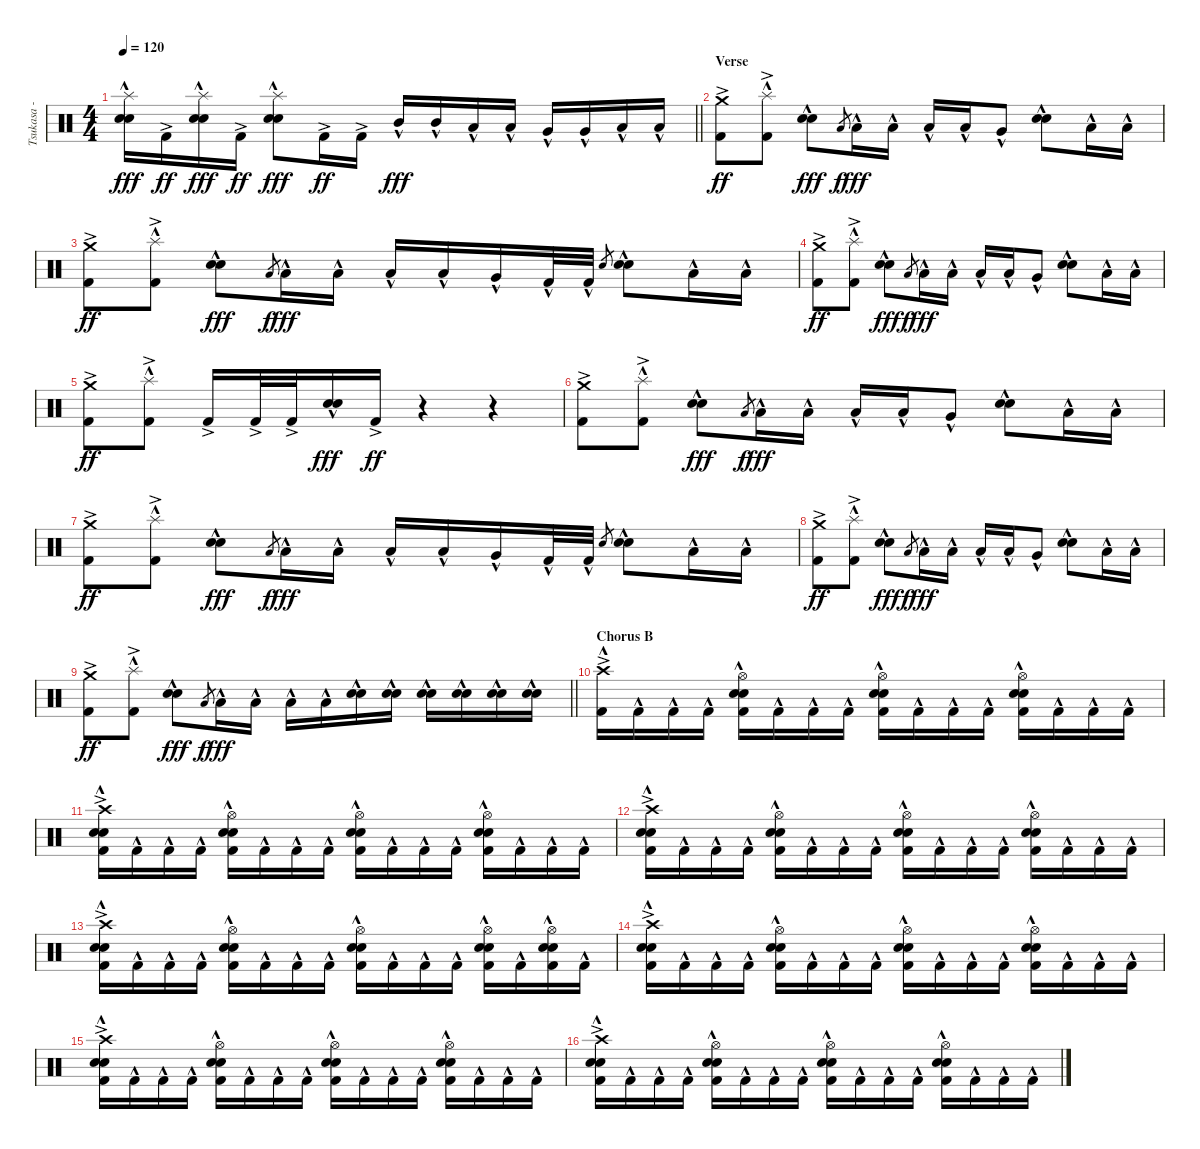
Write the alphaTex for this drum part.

\track ("Tsukasa - Drums" "Tsukasa - ") {instrument percussion}
\staff {score}
\articulation defaults
\ts (4 4)
\tempo 120
\clef neutral
\barLineRight lightlight
\ks c
("Splash (hit)"{hac} "Electric Snare (hit)"{hac} "Snare (hit) 2"{hac}).16{dy fff} "Kick (hit) 2"{ac}.16{dy ff} ("Splash (hit)"{hac} "Electric Snare (hit)"{hac} "Snare (hit) 2"{hac}).16{dy fff} "Kick (hit) 2"{ac}.16{dy ff} ("Splash (hit)"{hac} "Electric Snare (hit)"{hac} "Snare (hit) 2"{hac}).8{dy fff} "Kick (hit) 2"{ac}.16{dy ff} "Kick (hit) 2"{ac}.16 "Mid Tom (hit)"{hac}.16{dy fff} "Mid Tom (hit)"{hac}.16 "Low Tom (hit)"{hac}.16 "Low Tom (hit)"{hac}.16 "Very Low Tom (hit)"{hac}.16 "Very Low Tom (hit)"{hac}.16 "Low Floor Tom (hit)"{hac}.16 "Low Floor Tom (hit)"{hac}.16 |
\section ("" "Verse")
("Crash medium (hit)"{ac} "Kick (hit) 2"{ac}).8{dy ff} ("Splash (hit)"{hac} "Kick (hit) 2"{ac}).8 ("Electric Snare (hit)"{hac} "Snare (hit) 2"{hac}).8{dy fff} "Low Tom (hit)".8{gr dy f} "Low Tom (hit)"{hac}.16{dy fff} "Low Tom (hit)"{hac}.16 "Low Tom (hit)"{hac}.16 "Low Tom (hit)"{hac}.16 "Very Low Tom (hit)"{hac}.8 ("Electric Snare (hit)"{hac} "Snare (hit) 2"{hac}).8 "Low Floor Tom (hit)"{hac}.16 "Low Floor Tom (hit)"{hac}.16 |
("Crash medium (hit)"{ac} "Kick (hit) 2"{ac}).8{dy ff} ("Splash (hit)"{hac} "Kick (hit) 2"{ac}).8 ("Electric Snare (hit)"{hac} "Snare (hit) 2"{hac}).8{dy fff} "Low Tom (hit)".8{gr dy f} "Low Tom (hit)"{hac}.16{dy fff} "Low Tom (hit)"{hac}.16 "Low Tom (hit)"{hac}.16 "Low Tom (hit)"{hac}.16 "Very Low Tom (hit)"{hac}.16 "Kick (hit) 2"{hac}.32 "Kick (hit) 2"{hac}.32 "Electric Snare (hit)".8{gr} ("Electric Snare (hit)"{hac} "Snare (hit) 2"{hac}).8 "Low Floor Tom (hit)"{hac}.16 "Low Floor Tom (hit)"{hac}.16 |
("Crash medium (hit)"{ac} "Kick (hit) 2"{ac}).8{dy ff} ("Splash (hit)"{hac} "Kick (hit) 2"{ac}).8 ("Electric Snare (hit)"{hac} "Snare (hit) 2"{hac}).8{dy fff} "Low Tom (hit)".8{gr dy f} "Low Tom (hit)"{hac}.16{dy fff} "Low Tom (hit)"{hac}.16 "Low Tom (hit)"{hac}.16 "Low Tom (hit)"{hac}.16 "Very Low Tom (hit)"{hac}.8 ("Electric Snare (hit)"{hac} "Snare (hit) 2"{hac}).8 "Low Floor Tom (hit)"{hac}.16 "Low Floor Tom (hit)"{hac}.16 |
("Crash medium (hit)"{ac} "Kick (hit) 2"{ac}).8{dy ff} ("Splash (hit)"{hac} "Kick (hit) 2"{ac}).8 "Kick (hit) 2"{ac}.16 "Kick (hit) 2"{ac}.32 "Kick (hit) 2"{ac}.32 ("Electric Snare (hit)"{hac} "Snare (hit) 2"{hac}).16{dy fff} "Kick (hit) 2"{ac}.16{dy ff} r.4 r.4 |
("Crash medium (hit)"{ac} "Kick (hit) 2"{ac}).8 ("Splash (hit)"{hac} "Kick (hit) 2"{ac}).8 ("Electric Snare (hit)"{hac} "Snare (hit) 2"{hac}).8{dy fff} "Low Tom (hit)".8{gr dy f} "Low Tom (hit)"{hac}.16{dy fff} "Low Tom (hit)"{hac}.16 "Low Tom (hit)"{hac}.16 "Low Tom (hit)"{hac}.16 "Very Low Tom (hit)"{hac}.8 ("Electric Snare (hit)"{hac} "Snare (hit) 2"{hac}).8 "Low Floor Tom (hit)"{hac}.16 "Low Floor Tom (hit)"{hac}.16 |
("Crash medium (hit)"{ac} "Kick (hit) 2"{ac}).8{dy ff} ("Splash (hit)"{hac} "Kick (hit) 2"{ac}).8 ("Electric Snare (hit)"{hac} "Snare (hit) 2"{hac}).8{dy fff} "Low Tom (hit)".8{gr dy f} "Low Tom (hit)"{hac}.16{dy fff} "Low Tom (hit)"{hac}.16 "Low Tom (hit)"{hac}.16 "Low Tom (hit)"{hac}.16 "Very Low Tom (hit)"{hac}.16 "Kick (hit) 2"{hac}.32 "Kick (hit) 2"{hac}.32 "Electric Snare (hit)".8{gr} ("Electric Snare (hit)"{hac} "Snare (hit) 2"{hac}).8 "Low Floor Tom (hit)"{hac}.16 "Low Floor Tom (hit)"{hac}.16 |
("Crash medium (hit)"{ac} "Kick (hit) 2"{ac}).8{dy ff} ("Splash (hit)"{hac} "Kick (hit) 2"{ac}).8 ("Electric Snare (hit)"{hac} "Snare (hit) 2"{hac}).8{dy fff} "Low Tom (hit)".8{gr dy f} "Low Tom (hit)"{hac}.16{dy fff} "Low Tom (hit)"{hac}.16 "Low Tom (hit)"{hac}.16 "Low Tom (hit)"{hac}.16 "Very Low Tom (hit)"{hac}.8 ("Electric Snare (hit)"{hac} "Snare (hit) 2"{hac}).8 "Low Floor Tom (hit)"{hac}.16 "Low Floor Tom (hit)"{hac}.16 |
\barLineRight lightlight
("Crash medium (hit)"{ac} "Kick (hit) 2"{ac}).8{dy ff} ("Splash (hit)"{hac} "Kick (hit) 2"{ac}).8 ("Electric Snare (hit)"{hac} "Snare (hit) 2"{hac}).8{dy fff} "Low Tom (hit)".8{gr dy f} "Low Tom (hit)"{hac}.16{dy fff} "Low Tom (hit)"{hac}.16 "Low Tom (hit)"{hac}.16 "Low Tom (hit)"{hac}.16 ("Electric Snare (hit)"{hac} "Snare (hit) 2"{hac}).16 ("Electric Snare (hit)"{hac} "Snare (hit) 2"{hac}).16 ("Electric Snare (hit)"{hac} "Snare (hit) 2"{hac}).16 ("Electric Snare (hit)"{hac} "Snare (hit) 2"{hac}).16 ("Electric Snare (hit)"{hac} "Snare (hit) 2"{hac}).16 ("Electric Snare (hit)"{hac} "Snare (hit) 2"{hac}).16 |
\section ("" "Chorus B")
("Crash high (hit)"{ac} "Kick (hit) 2"{hac}).16 "Kick (hit) 2"{hac}.16 "Kick (hit) 2"{hac}.16 "Kick (hit) 2"{hac}.16 ("Hi-Hat (open)" "Electric Snare (hit)"{hac} "Snare (hit) 2"{hac} "Kick (hit) 2"{hac}).16 "Kick (hit) 2"{hac}.16 "Kick (hit) 2"{hac}.16 "Kick (hit) 2"{hac}.16 ("Hi-Hat (open)" "Electric Snare (hit)"{hac} "Snare (hit) 2"{hac} "Kick (hit) 2"{hac}).16 "Kick (hit) 2"{hac}.16 "Kick (hit) 2"{hac}.16 "Kick (hit) 2"{hac}.16 ("Hi-Hat (open)" "Electric Snare (hit)"{hac} "Snare (hit) 2"{hac} "Kick (hit) 2"{hac}).16 "Kick (hit) 2"{hac}.16 "Kick (hit) 2"{hac}.16 "Kick (hit) 2"{hac}.16 |
("Crash high (hit)"{ac} "Electric Snare (hit)"{hac} "Snare (hit) 2"{hac} "Kick (hit) 2"{hac}).16 "Kick (hit) 2"{hac}.16 "Kick (hit) 2"{hac}.16 "Kick (hit) 2"{hac}.16 ("Hi-Hat (open)" "Electric Snare (hit)"{hac} "Snare (hit) 2"{hac} "Kick (hit) 2"{hac}).16 "Kick (hit) 2"{hac}.16 "Kick (hit) 2"{hac}.16 "Kick (hit) 2"{hac}.16 ("Hi-Hat (open)" "Electric Snare (hit)"{hac} "Snare (hit) 2"{hac} "Kick (hit) 2"{hac}).16 "Kick (hit) 2"{hac}.16 "Kick (hit) 2"{hac}.16 "Kick (hit) 2"{hac}.16 ("Hi-Hat (open)" "Electric Snare (hit)"{hac} "Snare (hit) 2"{hac} "Kick (hit) 2"{hac}).16 "Kick (hit) 2"{hac}.16 "Kick (hit) 2"{hac}.16 "Kick (hit) 2"{hac}.16 |
("Crash high (hit)"{ac} "Electric Snare (hit)"{hac} "Snare (hit) 2"{hac} "Kick (hit) 2"{hac}).16 "Kick (hit) 2"{hac}.16 "Kick (hit) 2"{hac}.16 "Kick (hit) 2"{hac}.16 ("Hi-Hat (open)" "Electric Snare (hit)"{hac} "Snare (hit) 2"{hac} "Kick (hit) 2"{hac}).16 "Kick (hit) 2"{hac}.16 "Kick (hit) 2"{hac}.16 "Kick (hit) 2"{hac}.16 ("Hi-Hat (open)" "Electric Snare (hit)"{hac} "Snare (hit) 2"{hac} "Kick (hit) 2"{hac}).16 "Kick (hit) 2"{hac}.16 "Kick (hit) 2"{hac}.16 "Kick (hit) 2"{hac}.16 ("Hi-Hat (open)" "Electric Snare (hit)"{hac} "Snare (hit) 2"{hac} "Kick (hit) 2"{hac}).16 "Kick (hit) 2"{hac}.16 "Kick (hit) 2"{hac}.16 "Kick (hit) 2"{hac}.16 |
("Crash high (hit)"{ac} "Electric Snare (hit)"{hac} "Snare (hit) 2"{hac} "Kick (hit) 2"{hac}).16 "Kick (hit) 2"{hac}.16 "Kick (hit) 2"{hac}.16 "Kick (hit) 2"{hac}.16 ("Hi-Hat (open)" "Electric Snare (hit)"{hac} "Snare (hit) 2"{hac} "Kick (hit) 2"{hac}).16 "Kick (hit) 2"{hac}.16 "Kick (hit) 2"{hac}.16 "Kick (hit) 2"{hac}.16 ("Hi-Hat (open)" "Electric Snare (hit)"{hac} "Snare (hit) 2"{hac} "Kick (hit) 2"{hac}).16 "Kick (hit) 2"{hac}.16 "Kick (hit) 2"{hac}.16 "Kick (hit) 2"{hac}.16 ("Hi-Hat (open)" "Electric Snare (hit)"{hac} "Snare (hit) 2"{hac} "Kick (hit) 2"{hac}).16 "Kick (hit) 2"{hac}.16 ("Hi-Hat (open)" "Electric Snare (hit)"{hac} "Snare (hit) 2"{hac} "Kick (hit) 2"{hac}).16 "Kick (hit) 2"{hac}.16 |
("Crash high (hit)"{ac} "Electric Snare (hit)"{hac} "Snare (hit) 2"{hac} "Kick (hit) 2"{hac}).16 "Kick (hit) 2"{hac}.16 "Kick (hit) 2"{hac}.16 "Kick (hit) 2"{hac}.16 ("Hi-Hat (open)" "Electric Snare (hit)"{hac} "Snare (hit) 2"{hac} "Kick (hit) 2"{hac}).16 "Kick (hit) 2"{hac}.16 "Kick (hit) 2"{hac}.16 "Kick (hit) 2"{hac}.16 ("Hi-Hat (open)" "Electric Snare (hit)"{hac} "Snare (hit) 2"{hac} "Kick (hit) 2"{hac}).16 "Kick (hit) 2"{hac}.16 "Kick (hit) 2"{hac}.16 "Kick (hit) 2"{hac}.16 ("Hi-Hat (open)" "Electric Snare (hit)"{hac} "Snare (hit) 2"{hac} "Kick (hit) 2"{hac}).16 "Kick (hit) 2"{hac}.16 "Kick (hit) 2"{hac}.16 "Kick (hit) 2"{hac}.16 |
("Crash high (hit)"{ac} "Electric Snare (hit)"{hac} "Snare (hit) 2"{hac} "Kick (hit) 2"{hac}).16 "Kick (hit) 2"{hac}.16 "Kick (hit) 2"{hac}.16 "Kick (hit) 2"{hac}.16 ("Hi-Hat (open)" "Electric Snare (hit)"{hac} "Snare (hit) 2"{hac} "Kick (hit) 2"{hac}).16 "Kick (hit) 2"{hac}.16 "Kick (hit) 2"{hac}.16 "Kick (hit) 2"{hac}.16 ("Hi-Hat (open)" "Electric Snare (hit)"{hac} "Snare (hit) 2"{hac} "Kick (hit) 2"{hac}).16 "Kick (hit) 2"{hac}.16 "Kick (hit) 2"{hac}.16 "Kick (hit) 2"{hac}.16 ("Hi-Hat (open)" "Electric Snare (hit)"{hac} "Snare (hit) 2"{hac} "Kick (hit) 2"{hac}).16 "Kick (hit) 2"{hac}.16 "Kick (hit) 2"{hac}.16 "Kick (hit) 2"{hac}.16 |
("Crash high (hit)"{ac} "Electric Snare (hit)"{hac} "Snare (hit) 2"{hac} "Kick (hit) 2"{hac}).16 "Kick (hit) 2"{hac}.16 "Kick (hit) 2"{hac}.16 "Kick (hit) 2"{hac}.16 ("Hi-Hat (open)" "Electric Snare (hit)"{hac} "Snare (hit) 2"{hac} "Kick (hit) 2"{hac}).16 "Kick (hit) 2"{hac}.16 "Kick (hit) 2"{hac}.16 "Kick (hit) 2"{hac}.16 ("Hi-Hat (open)" "Electric Snare (hit)"{hac} "Snare (hit) 2"{hac} "Kick (hit) 2"{hac}).16 "Kick (hit) 2"{hac}.16 "Kick (hit) 2"{hac}.16 "Kick (hit) 2"{hac}.16 ("Hi-Hat (open)" "Electric Snare (hit)"{hac} "Snare (hit) 2"{hac} "Kick (hit) 2"{hac}).16 "Kick (hit) 2"{hac}.16 "Kick (hit) 2"{hac}.16 "Kick (hit) 2"{hac}.16
